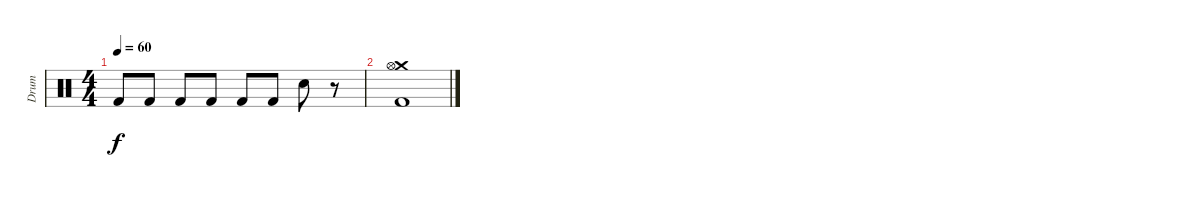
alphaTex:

\track ("Drum" "Drum") {instrument percussion}
\staff {score}
\articulation defaults
\ts (4 4)
\tempo 60
\clef neutral
\ks c "Kick (hit) 2".8{dy f} "Kick (hit) 2".8 "Kick (hit) 2".8 "Kick (hit) 2".8 "Kick (hit) 2".8 "Kick (hit) 2".8 "Electric Snare (hit)".8
r.8 |
("Crash medium (hit)" "Hi-Hat (open)" "Kick (hit) 2").1
